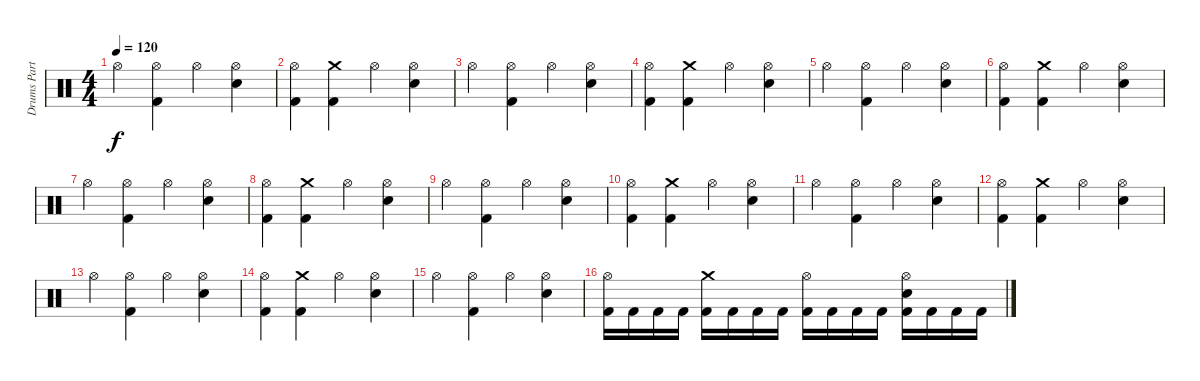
\track ("Drums Part" "Drums Part") {instrument percussion}
\staff {score}
\articulation defaults
\ts (4 4)
\tempo 120
\clef neutral
\ks c "Hi-Hat (open)".4{dy f}
("Hi-Hat (open)" "Kick (hit) 2").4 "Hi-Hat (open)".4 ("Hi-Hat (open)" "Electric Snare (hit)").4 |
("Hi-Hat (open)" "Kick (hit) 2").4 ("Crash medium (hit)" "Kick (hit) 2").4 "Hi-Hat (open)".4 ("Hi-Hat (open)" "Electric Snare (hit)").4 |
"Hi-Hat (open)".4 ("Hi-Hat (open)" "Kick (hit) 2").4 "Hi-Hat (open)".4 ("Hi-Hat (open)" "Electric Snare (hit)").4 |
("Hi-Hat (open)" "Kick (hit) 2").4 ("Crash medium (hit)" "Kick (hit) 2").4 "Hi-Hat (open)".4 ("Hi-Hat (open)" "Electric Snare (hit)").4 |
"Hi-Hat (open)".4 ("Hi-Hat (open)" "Kick (hit) 2").4 "Hi-Hat (open)".4 ("Hi-Hat (open)" "Electric Snare (hit)").4 |
("Hi-Hat (open)" "Kick (hit) 2").4 ("Crash medium (hit)" "Kick (hit) 2").4 "Hi-Hat (open)".4 ("Hi-Hat (open)" "Electric Snare (hit)").4 |
"Hi-Hat (open)".4 ("Hi-Hat (open)" "Kick (hit) 2").4 "Hi-Hat (open)".4 ("Hi-Hat (open)" "Electric Snare (hit)").4 |
("Hi-Hat (open)" "Kick (hit) 2").4 ("Crash medium (hit)" "Kick (hit) 2").4 "Hi-Hat (open)".4 ("Hi-Hat (open)" "Electric Snare (hit)").4 |
"Hi-Hat (open)".4 ("Hi-Hat (open)" "Kick (hit) 2").4 "Hi-Hat (open)".4 ("Hi-Hat (open)" "Electric Snare (hit)").4 |
("Hi-Hat (open)" "Kick (hit) 2").4 ("Crash medium (hit)" "Kick (hit) 2").4 "Hi-Hat (open)".4 ("Hi-Hat (open)" "Electric Snare (hit)").4 |
"Hi-Hat (open)".4 ("Hi-Hat (open)" "Kick (hit) 2").4 "Hi-Hat (open)".4 ("Hi-Hat (open)" "Electric Snare (hit)").4 |
("Hi-Hat (open)" "Kick (hit) 2").4 ("Crash medium (hit)" "Kick (hit) 2").4 "Hi-Hat (open)".4 ("Hi-Hat (open)" "Electric Snare (hit)").4 |
"Hi-Hat (open)".4 ("Hi-Hat (open)" "Kick (hit) 2").4 "Hi-Hat (open)".4 ("Hi-Hat (open)" "Electric Snare (hit)").4 |
("Hi-Hat (open)" "Kick (hit) 2").4 ("Crash medium (hit)" "Kick (hit) 2").4 "Hi-Hat (open)".4 ("Hi-Hat (open)" "Electric Snare (hit)").4 |
"Hi-Hat (open)".4 ("Hi-Hat (open)" "Kick (hit) 2").4 "Hi-Hat (open)".4 ("Hi-Hat (open)" "Electric Snare (hit)").4 |
("Hi-Hat (open)" "Kick (hit) 2").16 "Kick (hit) 2".16 "Kick (hit) 2".16 "Kick (hit) 2".16 ("Crash medium (hit)" "Kick (hit) 2").16 "Kick (hit) 2".16 "Kick (hit) 2".16 "Kick (hit) 2".16 ("Hi-Hat (open)" "Kick (hit) 2").16 "Kick (hit) 2".16 "Kick (hit) 2".16 "Kick (hit) 2".16 ("Hi-Hat (open)" "Electric Snare (hit)" "Kick (hit) 2").16 "Kick (hit) 2".16 "Kick (hit) 2".16 "Kick (hit) 2".16
